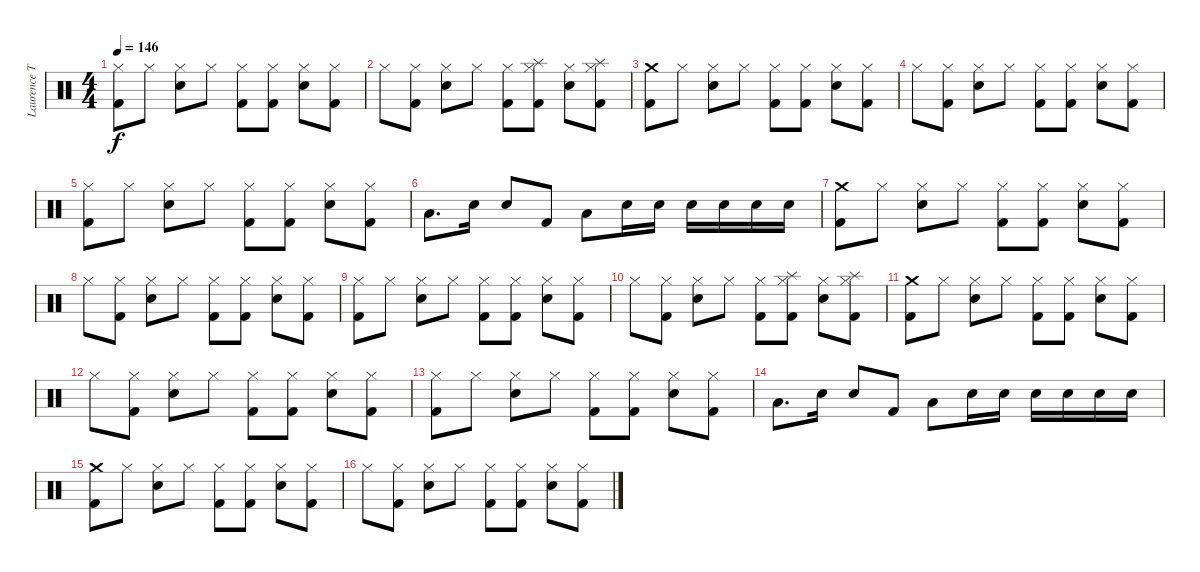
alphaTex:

\track ("Laurence Tolhurst drums" "Laurence T") {instrument percussion}
\staff {score}
\articulation defaults
\ts (4 4)
\tempo 146
\clef neutral
\ks c
("Hi-Hat (closed)" "Kick (hit) 2").8{dy f} "Hi-Hat (closed)".8 ("Hi-Hat (closed)" "Snare (hit) 2").8 "Hi-Hat (closed)".8 ("Hi-Hat (closed)" "Kick (hit) 2").8 ("Hi-Hat (closed)" "Kick (hit) 2").8 ("Hi-Hat (closed)" "Snare (hit) 2").8 ("Hi-Hat (closed)" "Kick (hit) 2").8 |
"Hi-Hat (closed)".8 ("Hi-Hat (closed)" "Kick (hit) 2").8 ("Hi-Hat (closed)" "Snare (hit) 2").8 "Hi-Hat (closed)".8 ("Hi-Hat (closed)" "Kick (hit) 2").8 ("Hi-Hat (closed)" "Kick (hit) 2" "Splash (hit)").8 ("Hi-Hat (closed)" "Snare (hit) 2").8 ("Hi-Hat (closed)" "Kick (hit) 2" "Splash (hit)").8 |
("Crash medium (hit)" "Kick (hit) 2").8 "Hi-Hat (closed)".8 ("Hi-Hat (closed)" "Snare (hit) 2").8 "Hi-Hat (closed)".8 ("Hi-Hat (closed)" "Kick (hit) 2").8 ("Hi-Hat (closed)" "Kick (hit) 2").8 ("Hi-Hat (closed)" "Snare (hit) 2").8 ("Hi-Hat (closed)" "Kick (hit) 2").8 |
"Hi-Hat (closed)".8 ("Hi-Hat (closed)" "Kick (hit) 2").8 ("Hi-Hat (closed)" "Snare (hit) 2").8 "Hi-Hat (closed)".8 ("Hi-Hat (closed)" "Kick (hit) 2").8 ("Hi-Hat (closed)" "Kick (hit) 2").8 ("Hi-Hat (closed)" "Snare (hit) 2").8 ("Hi-Hat (closed)" "Kick (hit) 2").8 |
("Hi-Hat (closed)" "Kick (hit) 2").8 "Hi-Hat (closed)".8 ("Hi-Hat (closed)" "Snare (hit) 2").8 "Hi-Hat (closed)".8 ("Hi-Hat (closed)" "Kick (hit) 2").8 ("Hi-Hat (closed)" "Kick (hit) 2").8 ("Hi-Hat (closed)" "Snare (hit) 2").8 ("Hi-Hat (closed)" "Kick (hit) 2").8 |
"Low Tom (hit)".8{d} "Snare (hit) 2".16 "Snare (hit) 2".8 "Kick (hit) 2".8 "Low Tom (hit)".8 "Snare (hit) 2".16 "Snare (hit) 2".16 "Snare (hit) 2".16 "Snare (hit) 2".16 "Snare (hit) 2".16 "Snare (hit) 2".16 |
("Crash medium (hit)" "Kick (hit) 2").8 "Hi-Hat (closed)".8 ("Hi-Hat (closed)" "Snare (hit) 2").8 "Hi-Hat (closed)".8 ("Hi-Hat (closed)" "Kick (hit) 2").8 ("Hi-Hat (closed)" "Kick (hit) 2").8 ("Hi-Hat (closed)" "Snare (hit) 2").8 ("Hi-Hat (closed)" "Kick (hit) 2").8 |
"Hi-Hat (closed)".8 ("Hi-Hat (closed)" "Kick (hit) 2").8 ("Hi-Hat (closed)" "Snare (hit) 2").8 "Hi-Hat (closed)".8 ("Hi-Hat (closed)" "Kick (hit) 2").8 ("Hi-Hat (closed)" "Kick (hit) 2").8 ("Hi-Hat (closed)" "Snare (hit) 2").8 ("Hi-Hat (closed)" "Kick (hit) 2").8 |
("Hi-Hat (closed)" "Kick (hit) 2").8 "Hi-Hat (closed)".8 ("Hi-Hat (closed)" "Snare (hit) 2").8 "Hi-Hat (closed)".8 ("Hi-Hat (closed)" "Kick (hit) 2").8 ("Hi-Hat (closed)" "Kick (hit) 2").8 ("Hi-Hat (closed)" "Snare (hit) 2").8 ("Hi-Hat (closed)" "Kick (hit) 2").8 |
"Hi-Hat (closed)".8 ("Hi-Hat (closed)" "Kick (hit) 2").8 ("Hi-Hat (closed)" "Snare (hit) 2").8 "Hi-Hat (closed)".8 ("Hi-Hat (closed)" "Kick (hit) 2").8 ("Hi-Hat (closed)" "Kick (hit) 2" "Splash (hit)").8 ("Hi-Hat (closed)" "Snare (hit) 2").8 ("Hi-Hat (closed)" "Kick (hit) 2" "Splash (hit)").8 |
("Crash medium (hit)" "Kick (hit) 2").8 "Hi-Hat (closed)".8 ("Hi-Hat (closed)" "Snare (hit) 2").8 "Hi-Hat (closed)".8 ("Hi-Hat (closed)" "Kick (hit) 2").8 ("Hi-Hat (closed)" "Kick (hit) 2").8 ("Hi-Hat (closed)" "Snare (hit) 2").8 ("Hi-Hat (closed)" "Kick (hit) 2").8 |
"Hi-Hat (closed)".8 ("Hi-Hat (closed)" "Kick (hit) 2").8 ("Hi-Hat (closed)" "Snare (hit) 2").8 "Hi-Hat (closed)".8 ("Hi-Hat (closed)" "Kick (hit) 2").8 ("Hi-Hat (closed)" "Kick (hit) 2").8 ("Hi-Hat (closed)" "Snare (hit) 2").8 ("Hi-Hat (closed)" "Kick (hit) 2").8 |
("Hi-Hat (closed)" "Kick (hit) 2").8 "Hi-Hat (closed)".8 ("Hi-Hat (closed)" "Snare (hit) 2").8 "Hi-Hat (closed)".8 ("Hi-Hat (closed)" "Kick (hit) 2").8 ("Hi-Hat (closed)" "Kick (hit) 2").8 ("Hi-Hat (closed)" "Snare (hit) 2").8 ("Hi-Hat (closed)" "Kick (hit) 2").8 |
"Low Tom (hit)".8{d} "Snare (hit) 2".16 "Snare (hit) 2".8 "Kick (hit) 2".8 "Low Tom (hit)".8 "Snare (hit) 2".16 "Snare (hit) 2".16 "Snare (hit) 2".16 "Snare (hit) 2".16 "Snare (hit) 2".16 "Snare (hit) 2".16 |
("Crash medium (hit)" "Kick (hit) 2").8 "Hi-Hat (closed)".8 ("Hi-Hat (closed)" "Snare (hit) 2").8 "Hi-Hat (closed)".8 ("Hi-Hat (closed)" "Kick (hit) 2").8 ("Hi-Hat (closed)" "Kick (hit) 2").8 ("Hi-Hat (closed)" "Snare (hit) 2").8 ("Hi-Hat (closed)" "Kick (hit) 2").8 |
"Hi-Hat (closed)".8 ("Hi-Hat (closed)" "Kick (hit) 2").8 ("Hi-Hat (closed)" "Snare (hit) 2").8 "Hi-Hat (closed)".8 ("Hi-Hat (closed)" "Kick (hit) 2").8 ("Hi-Hat (closed)" "Kick (hit) 2").8 ("Hi-Hat (closed)" "Snare (hit) 2").8 ("Hi-Hat (closed)" "Kick (hit) 2").8
